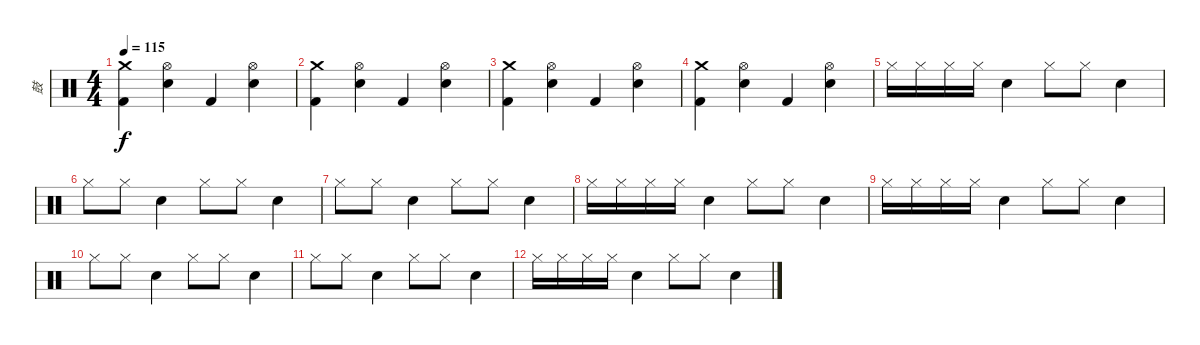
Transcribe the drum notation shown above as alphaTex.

\track ("鼓" "鼓") {instrument percussion}
\staff {score}
\articulation defaults
\ts (4 4)
\tempo 115
\clef neutral
\ks c
("Kick (hit) 2" "Crash medium (hit)").4{dy f} ("Snare (hit) 2" "Hi-Hat (open)").4 "Kick (hit) 2".4 ("Snare (hit) 2" "Hi-Hat (open)").4 |
("Kick (hit) 2" "Crash medium (hit)").4 ("Snare (hit) 2" "Hi-Hat (open)").4 "Kick (hit) 2".4 ("Snare (hit) 2" "Hi-Hat (open)").4 |
("Kick (hit) 2" "Crash medium (hit)").4 ("Snare (hit) 2" "Hi-Hat (open)").4 "Kick (hit) 2".4 ("Snare (hit) 2" "Hi-Hat (open)").4 |
("Kick (hit) 2" "Crash medium (hit)").4 ("Snare (hit) 2" "Hi-Hat (open)").4 "Kick (hit) 2".4 ("Snare (hit) 2" "Hi-Hat (open)").4 |
"Hi-Hat (closed)".16 "Hi-Hat (closed)".16 "Hi-Hat (closed)".16 "Hi-Hat (closed)".16 "Snare (hit) 2".4 "Hi-Hat (closed)".8 "Hi-Hat (closed)".8 "Snare (hit) 2".4 |
"Hi-Hat (closed)".8 "Hi-Hat (closed)".8 "Snare (hit) 2".4 "Hi-Hat (closed)".8 "Hi-Hat (closed)".8 "Snare (hit) 2".4 |
"Hi-Hat (closed)".8 "Hi-Hat (closed)".8 "Snare (hit) 2".4 "Hi-Hat (closed)".8 "Hi-Hat (closed)".8 "Snare (hit) 2".4 |
"Hi-Hat (closed)".16 "Hi-Hat (closed)".16 "Hi-Hat (closed)".16 "Hi-Hat (closed)".16 "Snare (hit) 2".4 "Hi-Hat (closed)".8 "Hi-Hat (closed)".8 "Snare (hit) 2".4 |
"Hi-Hat (closed)".16 "Hi-Hat (closed)".16 "Hi-Hat (closed)".16 "Hi-Hat (closed)".16 "Snare (hit) 2".4 "Hi-Hat (closed)".8 "Hi-Hat (closed)".8 "Snare (hit) 2".4 |
"Hi-Hat (closed)".8 "Hi-Hat (closed)".8 "Snare (hit) 2".4 "Hi-Hat (closed)".8 "Hi-Hat (closed)".8 "Snare (hit) 2".4 |
"Hi-Hat (closed)".8 "Hi-Hat (closed)".8 "Snare (hit) 2".4 "Hi-Hat (closed)".8 "Hi-Hat (closed)".8 "Snare (hit) 2".4 |
"Hi-Hat (closed)".16 "Hi-Hat (closed)".16 "Hi-Hat (closed)".16 "Hi-Hat (closed)".16 "Snare (hit) 2".4 "Hi-Hat (closed)".8 "Hi-Hat (closed)".8 "Snare (hit) 2".4
